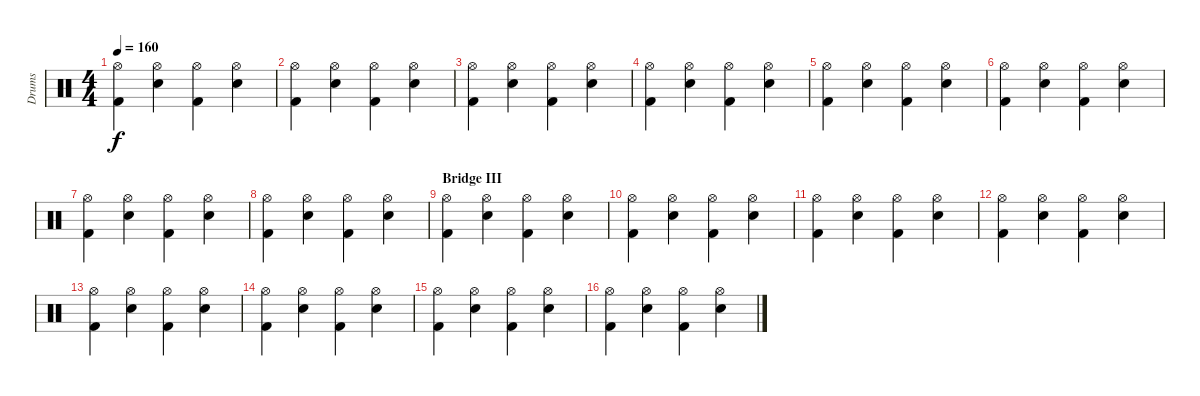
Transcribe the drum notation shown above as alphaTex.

\track ("Drums" "Drums") {instrument percussion}
\staff {score}
\articulation defaults
\ts (4 4)
\tempo 160
\clef neutral
\ks c
("Hi-Hat (open)" "Kick (hit) 2").4{dy f} ("Hi-Hat (open)" "Snare (hit) 2").4 ("Hi-Hat (open)" "Kick (hit) 2").4 ("Hi-Hat (open)" "Snare (hit) 2").4 |
("Hi-Hat (open)" "Kick (hit) 2").4 ("Hi-Hat (open)" "Snare (hit) 2").4 ("Hi-Hat (open)" "Kick (hit) 2").4 ("Hi-Hat (open)" "Snare (hit) 2").4 |
("Hi-Hat (open)" "Kick (hit) 2").4 ("Hi-Hat (open)" "Snare (hit) 2").4 ("Hi-Hat (open)" "Kick (hit) 2").4 ("Hi-Hat (open)" "Snare (hit) 2").4 |
("Hi-Hat (open)" "Kick (hit) 2").4 ("Hi-Hat (open)" "Snare (hit) 2").4 ("Hi-Hat (open)" "Kick (hit) 2").4 ("Hi-Hat (open)" "Snare (hit) 2").4 |
("Hi-Hat (open)" "Kick (hit) 2").4 ("Hi-Hat (open)" "Snare (hit) 2").4 ("Hi-Hat (open)" "Kick (hit) 2").4 ("Hi-Hat (open)" "Snare (hit) 2").4 |
("Hi-Hat (open)" "Kick (hit) 2").4 ("Hi-Hat (open)" "Snare (hit) 2").4 ("Hi-Hat (open)" "Kick (hit) 2").4 ("Hi-Hat (open)" "Snare (hit) 2").4 |
("Hi-Hat (open)" "Kick (hit) 2").4 ("Hi-Hat (open)" "Snare (hit) 2").4 ("Hi-Hat (open)" "Kick (hit) 2").4 ("Hi-Hat (open)" "Snare (hit) 2").4 |
("Hi-Hat (open)" "Kick (hit) 2").4 ("Hi-Hat (open)" "Snare (hit) 2").4 ("Hi-Hat (open)" "Kick (hit) 2").4 ("Hi-Hat (open)" "Snare (hit) 2").4 |
\section ("" "Bridge III")
("Hi-Hat (open)" "Kick (hit) 2").4 ("Hi-Hat (open)" "Snare (hit) 2").4 ("Hi-Hat (open)" "Kick (hit) 2").4 ("Hi-Hat (open)" "Snare (hit) 2").4 |
("Hi-Hat (open)" "Kick (hit) 2").4 ("Hi-Hat (open)" "Snare (hit) 2").4 ("Hi-Hat (open)" "Kick (hit) 2").4 ("Hi-Hat (open)" "Snare (hit) 2").4 |
("Hi-Hat (open)" "Kick (hit) 2").4 ("Hi-Hat (open)" "Snare (hit) 2").4 ("Hi-Hat (open)" "Kick (hit) 2").4 ("Hi-Hat (open)" "Snare (hit) 2").4 |
("Hi-Hat (open)" "Kick (hit) 2").4 ("Hi-Hat (open)" "Snare (hit) 2").4 ("Hi-Hat (open)" "Kick (hit) 2").4 ("Hi-Hat (open)" "Snare (hit) 2").4 |
("Hi-Hat (open)" "Kick (hit) 2").4 ("Hi-Hat (open)" "Snare (hit) 2").4 ("Hi-Hat (open)" "Kick (hit) 2").4 ("Hi-Hat (open)" "Snare (hit) 2").4 |
("Hi-Hat (open)" "Kick (hit) 2").4 ("Hi-Hat (open)" "Snare (hit) 2").4 ("Hi-Hat (open)" "Kick (hit) 2").4 ("Hi-Hat (open)" "Snare (hit) 2").4 |
("Hi-Hat (open)" "Kick (hit) 2").4 ("Hi-Hat (open)" "Snare (hit) 2").4 ("Hi-Hat (open)" "Kick (hit) 2").4 ("Hi-Hat (open)" "Snare (hit) 2").4 |
("Hi-Hat (open)" "Kick (hit) 2").4 ("Hi-Hat (open)" "Snare (hit) 2").4 ("Hi-Hat (open)" "Kick (hit) 2").4 ("Hi-Hat (open)" "Snare (hit) 2").4
